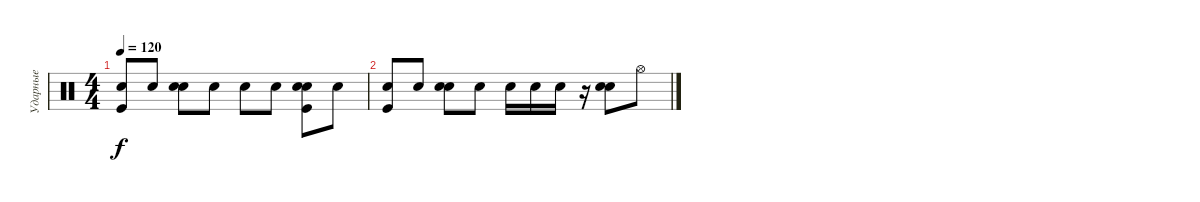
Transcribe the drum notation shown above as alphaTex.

\track ("Ударные" "Ударные") {instrument percussion}
\staff {score}
\articulation defaults
\ts (4 4)
\tempo 120
\clef neutral
\ks c
("Snare (hit) 2" "Kick (hit)").8{dy f} "Snare (hit) 2".8 ("Electric Snare (hit)" "Snare (hit) 2").8 "Snare (hit) 2".8 "Snare (hit) 2".8 "Snare (hit) 2".8 ("Electric Snare (hit)" "Snare (hit) 2" "Kick (hit)").8 "Snare (hit) 2".8 |
("Snare (hit) 2" "Kick (hit)").8 "Snare (hit) 2".8 ("Electric Snare (hit)" "Snare (hit) 2").8 "Snare (hit) 2".8 "Snare (hit) 2".16 "Snare (hit) 2".16 "Snare (hit) 2".16 r.16 ("Electric Snare (hit)" "Snare (hit) 2").8 "Hi-Hat (open)".8
